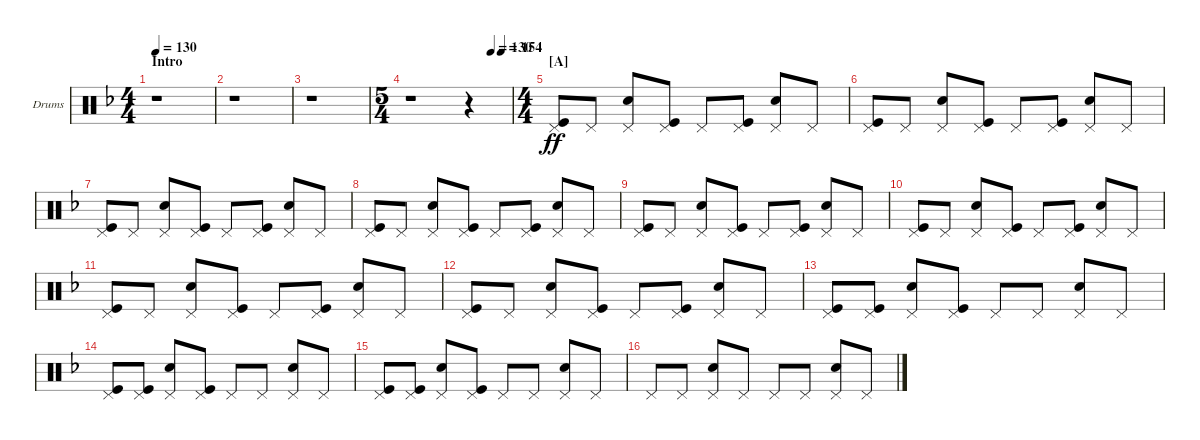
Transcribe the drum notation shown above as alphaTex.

\bracketExtendMode groupsimilarinstruments
\firstSystemTrackNameOrientation horizontal
\otherSystemsTrackNameOrientation horizontal
\track ("Fabrizio Moretti" "Drums") {instrument percussion}
\staff {score}
\articulation defaults
\ts (4 4)
\beaming (8 2 2 2 2)
\section ("" "Intro")
\tempo 130
\clef neutral
\ks f
r.1{dy ff} |
r.1 |
r.1 |
\ts (5 4)
\beaming (8 6 4)
\tempo (130 0.8)
\tempo (154 0.9)
r.1 r.4 |
\ts (4 4)
\beaming (8 2 2 2 2)
\section ("A" "")
("Pedal Hi-Hat (hit)" "Kick (hit)").8 "Pedal Hi-Hat (hit)".8 ("Pedal Hi-Hat (hit)" "Snare (hit) 2").8 ("Pedal Hi-Hat (hit)" "Kick (hit)").8 "Pedal Hi-Hat (hit)".8 ("Pedal Hi-Hat (hit)" "Kick (hit)").8 ("Pedal Hi-Hat (hit)" "Snare (hit) 2").8 "Pedal Hi-Hat (hit)".8 |
("Pedal Hi-Hat (hit)" "Kick (hit)").8 "Pedal Hi-Hat (hit)".8 ("Pedal Hi-Hat (hit)" "Snare (hit) 2").8 ("Pedal Hi-Hat (hit)" "Kick (hit)").8 "Pedal Hi-Hat (hit)".8 ("Pedal Hi-Hat (hit)" "Kick (hit)").8 ("Pedal Hi-Hat (hit)" "Snare (hit) 2").8 "Pedal Hi-Hat (hit)".8 |
("Pedal Hi-Hat (hit)" "Kick (hit)").8 "Pedal Hi-Hat (hit)".8 ("Pedal Hi-Hat (hit)" "Snare (hit) 2").8 ("Pedal Hi-Hat (hit)" "Kick (hit)").8 "Pedal Hi-Hat (hit)".8 ("Pedal Hi-Hat (hit)" "Kick (hit)").8 ("Pedal Hi-Hat (hit)" "Snare (hit) 2").8 "Pedal Hi-Hat (hit)".8 |
("Pedal Hi-Hat (hit)" "Kick (hit)").8 "Pedal Hi-Hat (hit)".8 ("Pedal Hi-Hat (hit)" "Snare (hit) 2").8 ("Pedal Hi-Hat (hit)" "Kick (hit)").8 "Pedal Hi-Hat (hit)".8 ("Pedal Hi-Hat (hit)" "Kick (hit)").8 ("Pedal Hi-Hat (hit)" "Snare (hit) 2").8 "Pedal Hi-Hat (hit)".8 |
("Pedal Hi-Hat (hit)" "Kick (hit)").8 "Pedal Hi-Hat (hit)".8 ("Pedal Hi-Hat (hit)" "Snare (hit) 2").8 ("Pedal Hi-Hat (hit)" "Kick (hit)").8 "Pedal Hi-Hat (hit)".8 ("Pedal Hi-Hat (hit)" "Kick (hit)").8 ("Pedal Hi-Hat (hit)" "Snare (hit) 2").8 "Pedal Hi-Hat (hit)".8 |
("Pedal Hi-Hat (hit)" "Kick (hit)").8 "Pedal Hi-Hat (hit)".8 ("Pedal Hi-Hat (hit)" "Snare (hit) 2").8 ("Pedal Hi-Hat (hit)" "Kick (hit)").8 "Pedal Hi-Hat (hit)".8 ("Pedal Hi-Hat (hit)" "Kick (hit)").8 ("Pedal Hi-Hat (hit)" "Snare (hit) 2").8 "Pedal Hi-Hat (hit)".8 |
("Pedal Hi-Hat (hit)" "Kick (hit)").8 "Pedal Hi-Hat (hit)".8 ("Pedal Hi-Hat (hit)" "Snare (hit) 2").8 ("Pedal Hi-Hat (hit)" "Kick (hit)").8 "Pedal Hi-Hat (hit)".8 ("Pedal Hi-Hat (hit)" "Kick (hit)").8 ("Pedal Hi-Hat (hit)" "Snare (hit) 2").8 "Pedal Hi-Hat (hit)".8 |
("Pedal Hi-Hat (hit)" "Kick (hit)").8 "Pedal Hi-Hat (hit)".8 ("Pedal Hi-Hat (hit)" "Snare (hit) 2").8 ("Pedal Hi-Hat (hit)" "Kick (hit)").8 "Pedal Hi-Hat (hit)".8 ("Pedal Hi-Hat (hit)" "Kick (hit)").8 ("Pedal Hi-Hat (hit)" "Snare (hit) 2").8 "Pedal Hi-Hat (hit)".8 |
("Pedal Hi-Hat (hit)" "Kick (hit)").8 ("Pedal Hi-Hat (hit)" "Kick (hit)").8 ("Pedal Hi-Hat (hit)" "Snare (hit) 2").8 ("Pedal Hi-Hat (hit)" "Kick (hit)").8 "Pedal Hi-Hat (hit)".8 "Pedal Hi-Hat (hit)".8 ("Pedal Hi-Hat (hit)" "Snare (hit) 2").8 "Pedal Hi-Hat (hit)".8 |
("Pedal Hi-Hat (hit)" "Kick (hit)").8 ("Pedal Hi-Hat (hit)" "Kick (hit)").8 ("Pedal Hi-Hat (hit)" "Snare (hit) 2").8 ("Pedal Hi-Hat (hit)" "Kick (hit)").8 "Pedal Hi-Hat (hit)".8 "Pedal Hi-Hat (hit)".8 ("Pedal Hi-Hat (hit)" "Snare (hit) 2").8 "Pedal Hi-Hat (hit)".8 |
("Pedal Hi-Hat (hit)" "Kick (hit)").8 ("Pedal Hi-Hat (hit)" "Kick (hit)").8 ("Pedal Hi-Hat (hit)" "Snare (hit) 2").8 ("Pedal Hi-Hat (hit)" "Kick (hit)").8 "Pedal Hi-Hat (hit)".8 "Pedal Hi-Hat (hit)".8 ("Pedal Hi-Hat (hit)" "Snare (hit) 2").8 "Pedal Hi-Hat (hit)".8 |
"Pedal Hi-Hat (hit)".8 "Pedal Hi-Hat (hit)".8 ("Pedal Hi-Hat (hit)" "Snare (hit) 2").8 "Pedal Hi-Hat (hit)".8 "Pedal Hi-Hat (hit)".8 "Pedal Hi-Hat (hit)".8 ("Pedal Hi-Hat (hit)" "Snare (hit) 2").8 "Pedal Hi-Hat (hit)".8
